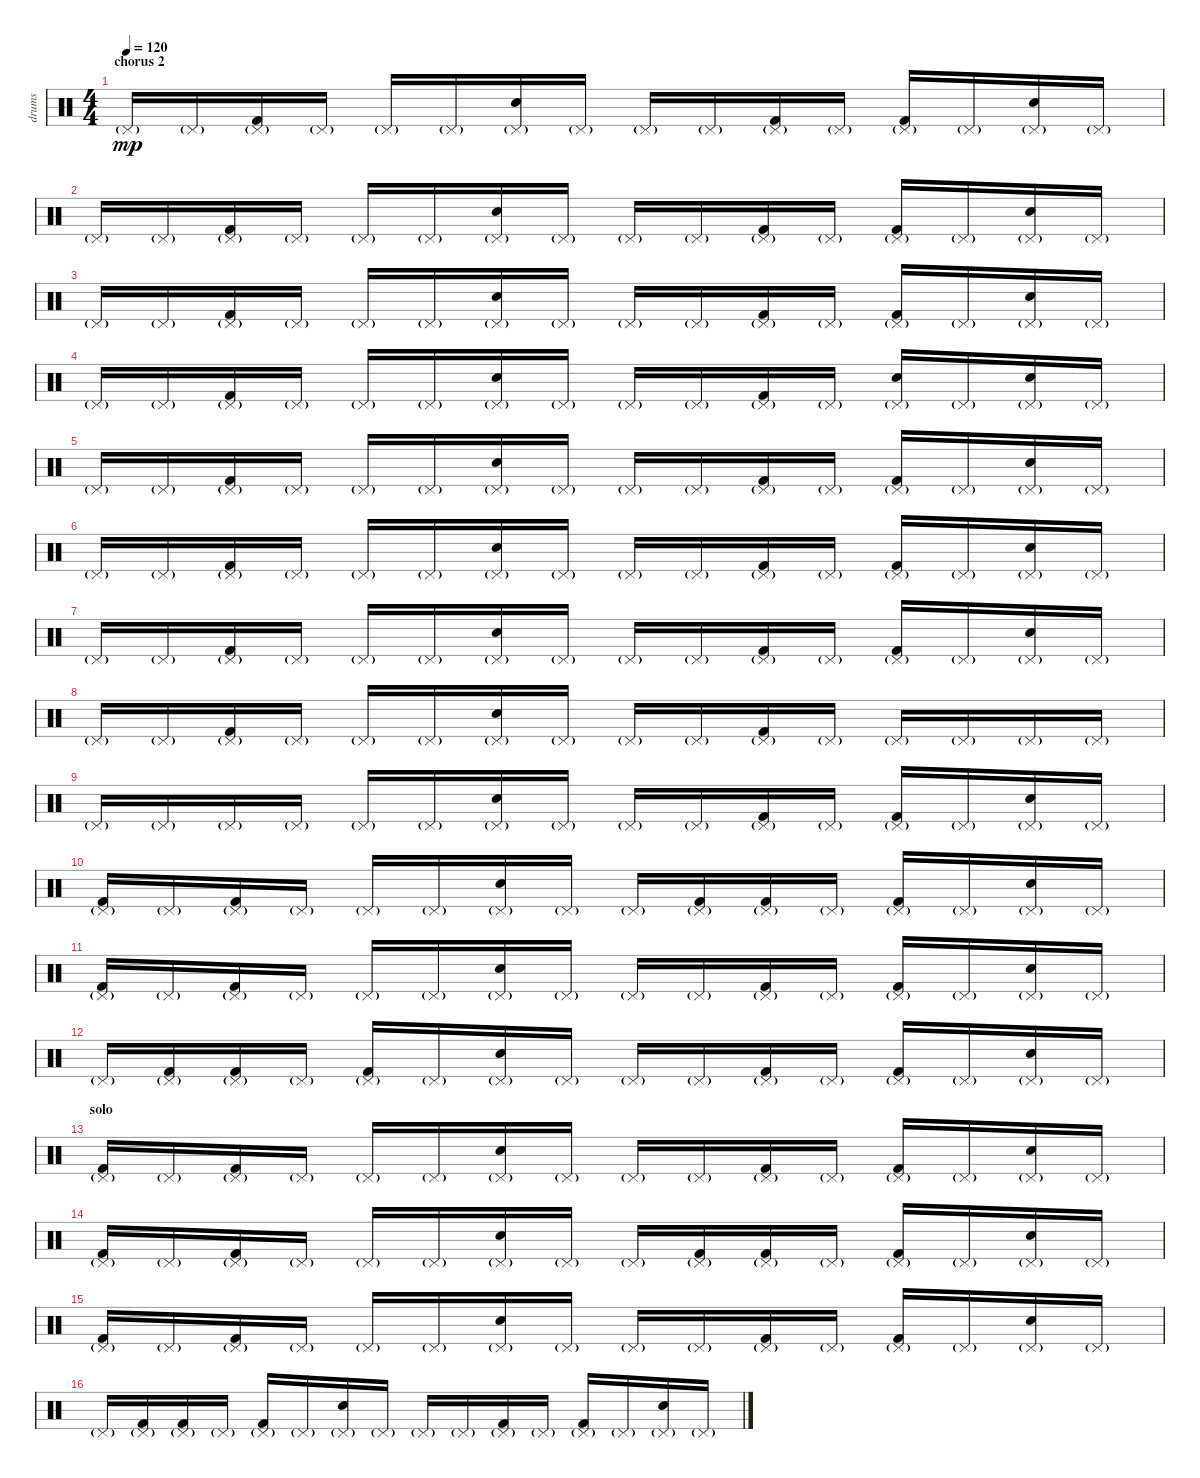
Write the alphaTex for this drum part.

\track ("drums" "drums") {instrument percussion}
\staff {score}
\articulation defaults
\ts (4 4)
\section ("" "chorus 2")
\tempo 120
\clef neutral
\ks c "Pedal Hi-Hat (hit)"{g}.16{dy mp} "Pedal Hi-Hat (hit)"{g}.16
("Kick (hit) 2" "Pedal Hi-Hat (hit)"{g}).16 "Pedal Hi-Hat (hit)"{g}.16 "Pedal Hi-Hat (hit)"{g}.16 "Pedal Hi-Hat (hit)"{g}.16 ("Snare (hit) 2" "Pedal Hi-Hat (hit)"{g}).16 "Pedal Hi-Hat (hit)"{g}.16 "Pedal Hi-Hat (hit)"{g}.16 "Pedal Hi-Hat (hit)"{g}.16 ("Kick (hit) 2" "Pedal Hi-Hat (hit)"{g}).16 "Pedal Hi-Hat (hit)"{g}.16 ("Kick (hit) 2" "Pedal Hi-Hat (hit)"{g}).16 "Pedal Hi-Hat (hit)"{g}.16 ("Snare (hit) 2" "Pedal Hi-Hat (hit)"{g}).16 "Pedal Hi-Hat (hit)"{g}.16 |
"Pedal Hi-Hat (hit)"{g}.16 "Pedal Hi-Hat (hit)"{g}.16 ("Kick (hit) 2" "Pedal Hi-Hat (hit)"{g}).16 "Pedal Hi-Hat (hit)"{g}.16 "Pedal Hi-Hat (hit)"{g}.16 "Pedal Hi-Hat (hit)"{g}.16 ("Snare (hit) 2" "Pedal Hi-Hat (hit)"{g}).16 "Pedal Hi-Hat (hit)"{g}.16 "Pedal Hi-Hat (hit)"{g}.16 "Pedal Hi-Hat (hit)"{g}.16 ("Kick (hit) 2" "Pedal Hi-Hat (hit)"{g}).16 "Pedal Hi-Hat (hit)"{g}.16 ("Kick (hit) 2" "Pedal Hi-Hat (hit)"{g}).16 "Pedal Hi-Hat (hit)"{g}.16 ("Snare (hit) 2" "Pedal Hi-Hat (hit)"{g}).16 "Pedal Hi-Hat (hit)"{g}.16 |
"Pedal Hi-Hat (hit)"{g}.16 "Pedal Hi-Hat (hit)"{g}.16 ("Kick (hit) 2" "Pedal Hi-Hat (hit)"{g}).16 "Pedal Hi-Hat (hit)"{g}.16 "Pedal Hi-Hat (hit)"{g}.16 "Pedal Hi-Hat (hit)"{g}.16 ("Snare (hit) 2" "Pedal Hi-Hat (hit)"{g}).16 "Pedal Hi-Hat (hit)"{g}.16 "Pedal Hi-Hat (hit)"{g}.16 "Pedal Hi-Hat (hit)"{g}.16 ("Kick (hit) 2" "Pedal Hi-Hat (hit)"{g}).16 "Pedal Hi-Hat (hit)"{g}.16 ("Kick (hit) 2" "Pedal Hi-Hat (hit)"{g}).16 "Pedal Hi-Hat (hit)"{g}.16 ("Snare (hit) 2" "Pedal Hi-Hat (hit)"{g}).16 "Pedal Hi-Hat (hit)"{g}.16 |
"Pedal Hi-Hat (hit)"{g}.16 "Pedal Hi-Hat (hit)"{g}.16 ("Kick (hit) 2" "Pedal Hi-Hat (hit)"{g}).16 "Pedal Hi-Hat (hit)"{g}.16 "Pedal Hi-Hat (hit)"{g}.16 "Pedal Hi-Hat (hit)"{g}.16 ("Snare (hit) 2" "Pedal Hi-Hat (hit)"{g}).16 "Pedal Hi-Hat (hit)"{g}.16 "Pedal Hi-Hat (hit)"{g}.16 "Pedal Hi-Hat (hit)"{g}.16 ("Kick (hit) 2" "Pedal Hi-Hat (hit)"{g}).16 "Pedal Hi-Hat (hit)"{g}.16 ("Snare (hit) 2" "Pedal Hi-Hat (hit)"{g}).16 "Pedal Hi-Hat (hit)"{g}.16 ("Snare (hit) 2" "Pedal Hi-Hat (hit)"{g}).16 "Pedal Hi-Hat (hit)"{g}.16 |
"Pedal Hi-Hat (hit)"{g}.16 "Pedal Hi-Hat (hit)"{g}.16 ("Kick (hit) 2" "Pedal Hi-Hat (hit)"{g}).16 "Pedal Hi-Hat (hit)"{g}.16 "Pedal Hi-Hat (hit)"{g}.16 "Pedal Hi-Hat (hit)"{g}.16 ("Snare (hit) 2" "Pedal Hi-Hat (hit)"{g}).16 "Pedal Hi-Hat (hit)"{g}.16 "Pedal Hi-Hat (hit)"{g}.16 "Pedal Hi-Hat (hit)"{g}.16 ("Kick (hit) 2" "Pedal Hi-Hat (hit)"{g}).16 "Pedal Hi-Hat (hit)"{g}.16 ("Kick (hit) 2" "Pedal Hi-Hat (hit)"{g}).16 "Pedal Hi-Hat (hit)"{g}.16 ("Snare (hit) 2" "Pedal Hi-Hat (hit)"{g}).16 "Pedal Hi-Hat (hit)"{g}.16 |
"Pedal Hi-Hat (hit)"{g}.16 "Pedal Hi-Hat (hit)"{g}.16 ("Kick (hit) 2" "Pedal Hi-Hat (hit)"{g}).16 "Pedal Hi-Hat (hit)"{g}.16 "Pedal Hi-Hat (hit)"{g}.16 "Pedal Hi-Hat (hit)"{g}.16 ("Snare (hit) 2" "Pedal Hi-Hat (hit)"{g}).16 "Pedal Hi-Hat (hit)"{g}.16 "Pedal Hi-Hat (hit)"{g}.16 "Pedal Hi-Hat (hit)"{g}.16 ("Kick (hit) 2" "Pedal Hi-Hat (hit)"{g}).16 "Pedal Hi-Hat (hit)"{g}.16 ("Kick (hit) 2" "Pedal Hi-Hat (hit)"{g}).16 "Pedal Hi-Hat (hit)"{g}.16 ("Snare (hit) 2" "Pedal Hi-Hat (hit)"{g}).16 "Pedal Hi-Hat (hit)"{g}.16 |
"Pedal Hi-Hat (hit)"{g}.16 "Pedal Hi-Hat (hit)"{g}.16 ("Kick (hit) 2" "Pedal Hi-Hat (hit)"{g}).16 "Pedal Hi-Hat (hit)"{g}.16 "Pedal Hi-Hat (hit)"{g}.16 "Pedal Hi-Hat (hit)"{g}.16 ("Snare (hit) 2" "Pedal Hi-Hat (hit)"{g}).16 "Pedal Hi-Hat (hit)"{g}.16 "Pedal Hi-Hat (hit)"{g}.16 "Pedal Hi-Hat (hit)"{g}.16 ("Kick (hit) 2" "Pedal Hi-Hat (hit)"{g}).16 "Pedal Hi-Hat (hit)"{g}.16 ("Kick (hit) 2" "Pedal Hi-Hat (hit)"{g}).16 "Pedal Hi-Hat (hit)"{g}.16 ("Snare (hit) 2" "Pedal Hi-Hat (hit)"{g}).16 "Pedal Hi-Hat (hit)"{g}.16 |
"Pedal Hi-Hat (hit)"{g}.16 "Pedal Hi-Hat (hit)"{g}.16 ("Kick (hit) 2" "Pedal Hi-Hat (hit)"{g}).16 "Pedal Hi-Hat (hit)"{g}.16 "Pedal Hi-Hat (hit)"{g}.16 "Pedal Hi-Hat (hit)"{g}.16 ("Snare (hit) 2" "Pedal Hi-Hat (hit)"{g}).16 "Pedal Hi-Hat (hit)"{g}.16 "Pedal Hi-Hat (hit)"{g}.16 "Pedal Hi-Hat (hit)"{g}.16 ("Kick (hit) 2" "Pedal Hi-Hat (hit)"{g}).16 "Pedal Hi-Hat (hit)"{g}.16 "Pedal Hi-Hat (hit)"{g}.16 "Pedal Hi-Hat (hit)"{g}.16 "Pedal Hi-Hat (hit)"{g}.16 "Pedal Hi-Hat (hit)"{g}.16 |
"Pedal Hi-Hat (hit)"{g}.16 "Pedal Hi-Hat (hit)"{g}.16 "Pedal Hi-Hat (hit)"{g}.16 "Pedal Hi-Hat (hit)"{g}.16 "Pedal Hi-Hat (hit)"{g}.16 "Pedal Hi-Hat (hit)"{g}.16 ("Hand Clap (hit)" "Pedal Hi-Hat (hit)"{g}).16 "Pedal Hi-Hat (hit)"{g}.16 "Pedal Hi-Hat (hit)"{g}.16 "Pedal Hi-Hat (hit)"{g}.16 ("Kick (hit) 2" "Pedal Hi-Hat (hit)"{g}).16 "Pedal Hi-Hat (hit)"{g}.16 ("Kick (hit) 2" "Pedal Hi-Hat (hit)"{g}).16 "Pedal Hi-Hat (hit)"{g}.16 ("Hand Clap (hit)" "Pedal Hi-Hat (hit)"{g}).16 "Pedal Hi-Hat (hit)"{g}.16 |
("Kick (hit) 2" "Pedal Hi-Hat (hit)"{g}).16 "Pedal Hi-Hat (hit)"{g}.16 ("Kick (hit) 2" "Pedal Hi-Hat (hit)"{g}).16 "Pedal Hi-Hat (hit)"{g}.16 "Pedal Hi-Hat (hit)"{g}.16 "Pedal Hi-Hat (hit)"{g}.16 ("Hand Clap (hit)" "Pedal Hi-Hat (hit)"{g}).16 "Pedal Hi-Hat (hit)"{g}.16 "Pedal Hi-Hat (hit)"{g}.16 ("Kick (hit) 2" "Pedal Hi-Hat (hit)"{g}).16 ("Kick (hit) 2" "Pedal Hi-Hat (hit)"{g}).16 "Pedal Hi-Hat (hit)"{g}.16 ("Kick (hit) 2" "Pedal Hi-Hat (hit)"{g}).16 "Pedal Hi-Hat (hit)"{g}.16 ("Hand Clap (hit)" "Pedal Hi-Hat (hit)"{g}).16 "Pedal Hi-Hat (hit)"{g}.16 |
("Kick (hit) 2" "Pedal Hi-Hat (hit)"{g}).16 "Pedal Hi-Hat (hit)"{g}.16 ("Kick (hit) 2" "Pedal Hi-Hat (hit)"{g}).16 "Pedal Hi-Hat (hit)"{g}.16 "Pedal Hi-Hat (hit)"{g}.16 "Pedal Hi-Hat (hit)"{g}.16 ("Hand Clap (hit)" "Pedal Hi-Hat (hit)"{g}).16 "Pedal Hi-Hat (hit)"{g}.16 "Pedal Hi-Hat (hit)"{g}.16 "Pedal Hi-Hat (hit)"{g}.16 ("Kick (hit) 2" "Pedal Hi-Hat (hit)"{g}).16 "Pedal Hi-Hat (hit)"{g}.16 ("Kick (hit) 2" "Pedal Hi-Hat (hit)"{g}).16 "Pedal Hi-Hat (hit)"{g}.16 ("Hand Clap (hit)" "Pedal Hi-Hat (hit)"{g}).16 "Pedal Hi-Hat (hit)"{g}.16 |
"Pedal Hi-Hat (hit)"{g}.16 ("Kick (hit) 2" "Pedal Hi-Hat (hit)"{g}).16 ("Kick (hit) 2" "Pedal Hi-Hat (hit)"{g}).16 "Pedal Hi-Hat (hit)"{g}.16 ("Kick (hit) 2" "Pedal Hi-Hat (hit)"{g}).16 "Pedal Hi-Hat (hit)"{g}.16 ("Hand Clap (hit)" "Pedal Hi-Hat (hit)"{g}).16 "Pedal Hi-Hat (hit)"{g}.16 "Pedal Hi-Hat (hit)"{g}.16 "Pedal Hi-Hat (hit)"{g}.16 ("Kick (hit) 2" "Pedal Hi-Hat (hit)"{g}).16 "Pedal Hi-Hat (hit)"{g}.16 ("Kick (hit) 2" "Pedal Hi-Hat (hit)"{g}).16 "Pedal Hi-Hat (hit)"{g}.16 ("Hand Clap (hit)" "Pedal Hi-Hat (hit)"{g}).16 "Pedal Hi-Hat (hit)"{g}.16 |
\section ("" "solo")
("Kick (hit) 2" "Pedal Hi-Hat (hit)"{g}).16 "Pedal Hi-Hat (hit)"{g}.16 ("Kick (hit) 2" "Pedal Hi-Hat (hit)"{g}).16 "Pedal Hi-Hat (hit)"{g}.16 "Pedal Hi-Hat (hit)"{g}.16 "Pedal Hi-Hat (hit)"{g}.16 ("Hand Clap (hit)" "Pedal Hi-Hat (hit)"{g}).16 "Pedal Hi-Hat (hit)"{g}.16 "Pedal Hi-Hat (hit)"{g}.16 "Pedal Hi-Hat (hit)"{g}.16 ("Kick (hit) 2" "Pedal Hi-Hat (hit)"{g}).16 "Pedal Hi-Hat (hit)"{g}.16 ("Kick (hit) 2" "Pedal Hi-Hat (hit)"{g}).16 "Pedal Hi-Hat (hit)"{g}.16 ("Hand Clap (hit)" "Pedal Hi-Hat (hit)"{g}).16 "Pedal Hi-Hat (hit)"{g}.16 |
("Kick (hit) 2" "Pedal Hi-Hat (hit)"{g}).16 "Pedal Hi-Hat (hit)"{g}.16 ("Kick (hit) 2" "Pedal Hi-Hat (hit)"{g}).16 "Pedal Hi-Hat (hit)"{g}.16 "Pedal Hi-Hat (hit)"{g}.16 "Pedal Hi-Hat (hit)"{g}.16 ("Hand Clap (hit)" "Pedal Hi-Hat (hit)"{g}).16 "Pedal Hi-Hat (hit)"{g}.16 "Pedal Hi-Hat (hit)"{g}.16 ("Kick (hit) 2" "Pedal Hi-Hat (hit)"{g}).16 ("Kick (hit) 2" "Pedal Hi-Hat (hit)"{g}).16 "Pedal Hi-Hat (hit)"{g}.16 ("Kick (hit) 2" "Pedal Hi-Hat (hit)"{g}).16 "Pedal Hi-Hat (hit)"{g}.16 ("Hand Clap (hit)" "Pedal Hi-Hat (hit)"{g}).16 "Pedal Hi-Hat (hit)"{g}.16 |
("Kick (hit) 2" "Pedal Hi-Hat (hit)"{g}).16 "Pedal Hi-Hat (hit)"{g}.16 ("Kick (hit) 2" "Pedal Hi-Hat (hit)"{g}).16 "Pedal Hi-Hat (hit)"{g}.16 "Pedal Hi-Hat (hit)"{g}.16 "Pedal Hi-Hat (hit)"{g}.16 ("Hand Clap (hit)" "Pedal Hi-Hat (hit)"{g}).16 "Pedal Hi-Hat (hit)"{g}.16 "Pedal Hi-Hat (hit)"{g}.16 "Pedal Hi-Hat (hit)"{g}.16 ("Kick (hit) 2" "Pedal Hi-Hat (hit)"{g}).16 "Pedal Hi-Hat (hit)"{g}.16 ("Kick (hit) 2" "Pedal Hi-Hat (hit)"{g}).16 "Pedal Hi-Hat (hit)"{g}.16 ("Hand Clap (hit)" "Pedal Hi-Hat (hit)"{g}).16 "Pedal Hi-Hat (hit)"{g}.16 |
"Pedal Hi-Hat (hit)"{g}.16 ("Kick (hit) 2" "Pedal Hi-Hat (hit)"{g}).16 ("Kick (hit) 2" "Pedal Hi-Hat (hit)"{g}).16 "Pedal Hi-Hat (hit)"{g}.16 ("Kick (hit) 2" "Pedal Hi-Hat (hit)"{g}).16 "Pedal Hi-Hat (hit)"{g}.16 ("Hand Clap (hit)" "Pedal Hi-Hat (hit)"{g}).16 "Pedal Hi-Hat (hit)"{g}.16 "Pedal Hi-Hat (hit)"{g}.16 "Pedal Hi-Hat (hit)"{g}.16 ("Kick (hit) 2" "Pedal Hi-Hat (hit)"{g}).16 "Pedal Hi-Hat (hit)"{g}.16 ("Kick (hit) 2" "Pedal Hi-Hat (hit)"{g}).16 "Pedal Hi-Hat (hit)"{g}.16 ("Hand Clap (hit)" "Pedal Hi-Hat (hit)"{g}).16 "Pedal Hi-Hat (hit)"{g}.16
